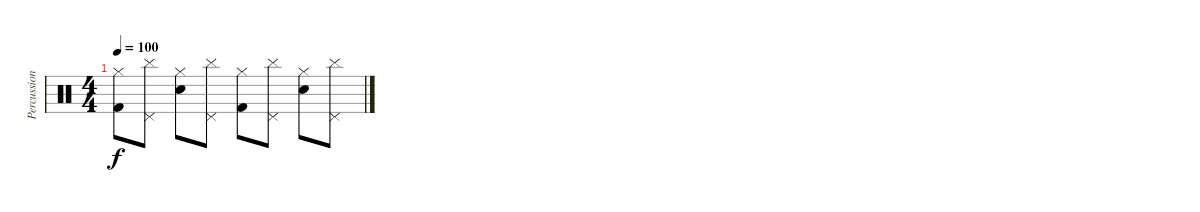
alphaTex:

\track ("Percussion" "Percussion") {solo instrument percussion}
\staff {score}
\articulation defaults
\ts (4 4)
\tempo 100
\clef neutral
\ks c
("Hi-Hat (closed)" "Kick (hit) 2").8{dy f} ("Pedal Hi-Hat (hit)" "Cymbal (hit)").8 ("Hi-Hat (closed)" "Snare (hit) 2").8 ("Pedal Hi-Hat (hit)" "Cymbal (hit)").8 ("Hi-Hat (closed)" "Kick (hit) 2").8 ("Pedal Hi-Hat (hit)" "Cymbal (hit)").8 ("Hi-Hat (closed)" "Snare (hit) 2").8 ("Pedal Hi-Hat (hit)" "Cymbal (hit)").8
